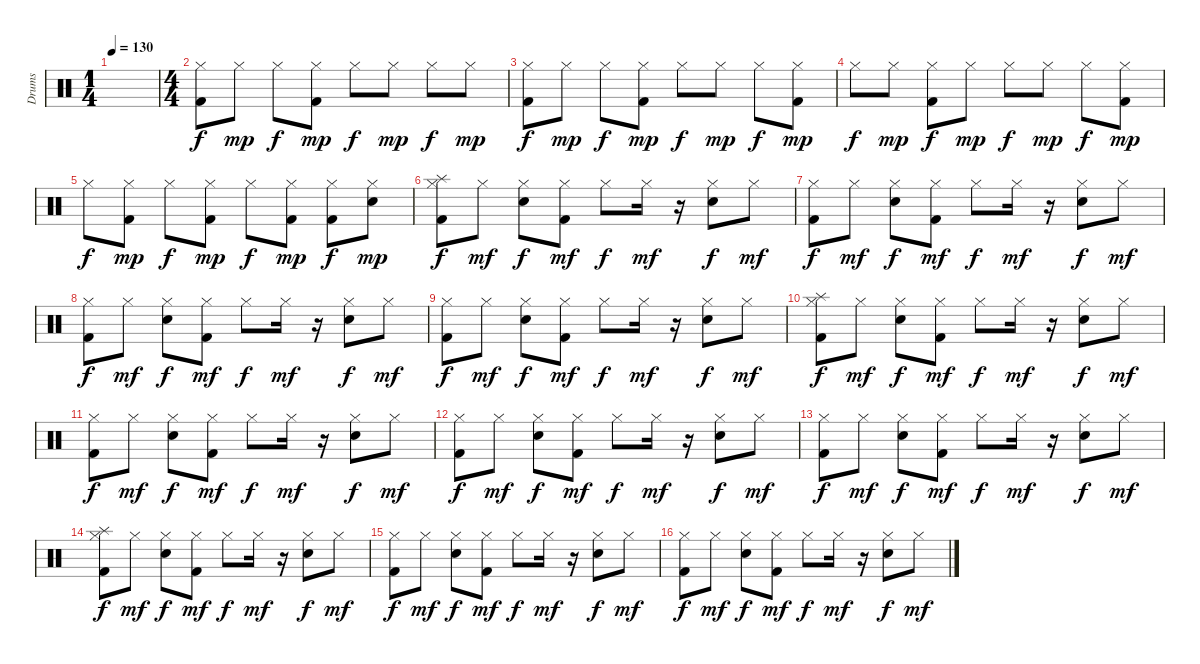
\track ("Drums" "Drums") {instrument percussion}
\staff {score}
\articulation defaults
\ts (1 4)
\tempo 130
\clef neutral
\ks c
|
\ts (4 4)
("Hi-Hat (closed)" "Kick (hit) 2").8 "Hi-Hat (closed)".8{dy mp} "Hi-Hat (closed)".8{dy f} ("Hi-Hat (closed)" "Kick (hit) 2").8{dy mp} "Hi-Hat (closed)".8{dy f} "Hi-Hat (closed)".8{dy mp} "Hi-Hat (closed)".8{dy f} "Hi-Hat (closed)".8{dy mp} |
("Hi-Hat (closed)" "Kick (hit) 2").8{dy f} "Hi-Hat (closed)".8{dy mp} "Hi-Hat (closed)".8{dy f} ("Hi-Hat (closed)" "Kick (hit) 2").8{dy mp} "Hi-Hat (closed)".8{dy f} "Hi-Hat (closed)".8{dy mp} "Hi-Hat (closed)".8{dy f} ("Hi-Hat (closed)" "Kick (hit) 2").8{dy mp} |
"Hi-Hat (closed)".8{dy f} "Hi-Hat (closed)".8{dy mp} ("Hi-Hat (closed)" "Kick (hit) 2").8{dy f} "Hi-Hat (closed)".8{dy mp} "Hi-Hat (closed)".8{dy f} "Hi-Hat (closed)".8{dy mp} "Hi-Hat (closed)".8{dy f} ("Hi-Hat (closed)" "Kick (hit) 2").8{dy mp} |
"Hi-Hat (closed)".8{dy f} ("Hi-Hat (closed)" "Kick (hit) 2").8{dy mp} "Hi-Hat (closed)".8{dy f} ("Hi-Hat (closed)" "Kick (hit) 2").8{dy mp} "Hi-Hat (closed)".8{dy f} ("Hi-Hat (closed)" "Kick (hit) 2").8{dy mp} ("Hi-Hat (closed)" "Kick (hit) 2").8{dy f} ("Hi-Hat (closed)" "Snare (hit) 2").8{dy mp} |
("Hi-Hat (closed)" "Splash (hit)" "Kick (hit) 2").8{dy f} "Hi-Hat (closed)".8{dy mf} ("Hi-Hat (closed)" "Snare (hit) 2").8{dy f} ("Hi-Hat (closed)" "Kick (hit) 2").8{dy mf} "Hi-Hat (closed)".8{dy f} "Hi-Hat (closed)".16{dy mf} r.16 ("Hi-Hat (closed)" "Snare (hit) 2").8{dy f} "Hi-Hat (closed)".8{dy mf} |
("Hi-Hat (closed)" "Kick (hit) 2").8{dy f} "Hi-Hat (closed)".8{dy mf} ("Hi-Hat (closed)" "Snare (hit) 2").8{dy f} ("Hi-Hat (closed)" "Kick (hit) 2").8{dy mf} "Hi-Hat (closed)".8{dy f} "Hi-Hat (closed)".16{dy mf} r.16 ("Hi-Hat (closed)" "Snare (hit) 2").8{dy f} "Hi-Hat (closed)".8{dy mf} |
("Hi-Hat (closed)" "Kick (hit) 2").8{dy f} "Hi-Hat (closed)".8{dy mf} ("Hi-Hat (closed)" "Snare (hit) 2").8{dy f} ("Hi-Hat (closed)" "Kick (hit) 2").8{dy mf} "Hi-Hat (closed)".8{dy f} "Hi-Hat (closed)".16{dy mf} r.16 ("Hi-Hat (closed)" "Snare (hit) 2").8{dy f} "Hi-Hat (closed)".8{dy mf} |
("Hi-Hat (closed)" "Kick (hit) 2").8{dy f} "Hi-Hat (closed)".8{dy mf} ("Hi-Hat (closed)" "Snare (hit) 2").8{dy f} ("Hi-Hat (closed)" "Kick (hit) 2").8{dy mf} "Hi-Hat (closed)".8{dy f} "Hi-Hat (closed)".16{dy mf} r.16 ("Hi-Hat (closed)" "Snare (hit) 2").8{dy f} "Hi-Hat (closed)".8{dy mf} |
("Hi-Hat (closed)" "Splash (hit)" "Kick (hit) 2").8{dy f} "Hi-Hat (closed)".8{dy mf} ("Hi-Hat (closed)" "Snare (hit) 2").8{dy f} ("Hi-Hat (closed)" "Kick (hit) 2").8{dy mf} "Hi-Hat (closed)".8{dy f} "Hi-Hat (closed)".16{dy mf} r.16 ("Hi-Hat (closed)" "Snare (hit) 2").8{dy f} "Hi-Hat (closed)".8{dy mf} |
("Hi-Hat (closed)" "Kick (hit) 2").8{dy f} "Hi-Hat (closed)".8{dy mf} ("Hi-Hat (closed)" "Snare (hit) 2").8{dy f} ("Hi-Hat (closed)" "Kick (hit) 2").8{dy mf} "Hi-Hat (closed)".8{dy f} "Hi-Hat (closed)".16{dy mf} r.16 ("Hi-Hat (closed)" "Snare (hit) 2").8{dy f} "Hi-Hat (closed)".8{dy mf} |
("Hi-Hat (closed)" "Kick (hit) 2").8{dy f} "Hi-Hat (closed)".8{dy mf} ("Hi-Hat (closed)" "Snare (hit) 2").8{dy f} ("Hi-Hat (closed)" "Kick (hit) 2").8{dy mf} "Hi-Hat (closed)".8{dy f} "Hi-Hat (closed)".16{dy mf} r.16 ("Hi-Hat (closed)" "Snare (hit) 2").8{dy f} "Hi-Hat (closed)".8{dy mf} |
("Hi-Hat (closed)" "Kick (hit) 2").8{dy f} "Hi-Hat (closed)".8{dy mf} ("Hi-Hat (closed)" "Snare (hit) 2").8{dy f} ("Hi-Hat (closed)" "Kick (hit) 2").8{dy mf} "Hi-Hat (closed)".8{dy f} "Hi-Hat (closed)".16{dy mf} r.16 ("Hi-Hat (closed)" "Snare (hit) 2").8{dy f} "Hi-Hat (closed)".8{dy mf} |
("Hi-Hat (closed)" "Splash (hit)" "Kick (hit) 2").8{dy f} "Hi-Hat (closed)".8{dy mf} ("Hi-Hat (closed)" "Snare (hit) 2").8{dy f} ("Hi-Hat (closed)" "Kick (hit) 2").8{dy mf} "Hi-Hat (closed)".8{dy f} "Hi-Hat (closed)".16{dy mf} r.16 ("Hi-Hat (closed)" "Snare (hit) 2").8{dy f} "Hi-Hat (closed)".8{dy mf} |
("Hi-Hat (closed)" "Kick (hit) 2").8{dy f} "Hi-Hat (closed)".8{dy mf} ("Hi-Hat (closed)" "Snare (hit) 2").8{dy f} ("Hi-Hat (closed)" "Kick (hit) 2").8{dy mf} "Hi-Hat (closed)".8{dy f} "Hi-Hat (closed)".16{dy mf} r.16 ("Hi-Hat (closed)" "Snare (hit) 2").8{dy f} "Hi-Hat (closed)".8{dy mf} |
("Hi-Hat (closed)" "Kick (hit) 2").8{dy f} "Hi-Hat (closed)".8{dy mf} ("Hi-Hat (closed)" "Snare (hit) 2").8{dy f} ("Hi-Hat (closed)" "Kick (hit) 2").8{dy mf} "Hi-Hat (closed)".8{dy f} "Hi-Hat (closed)".16{dy mf} r.16 ("Hi-Hat (closed)" "Snare (hit) 2").8{dy f} "Hi-Hat (closed)".8{dy mf}
